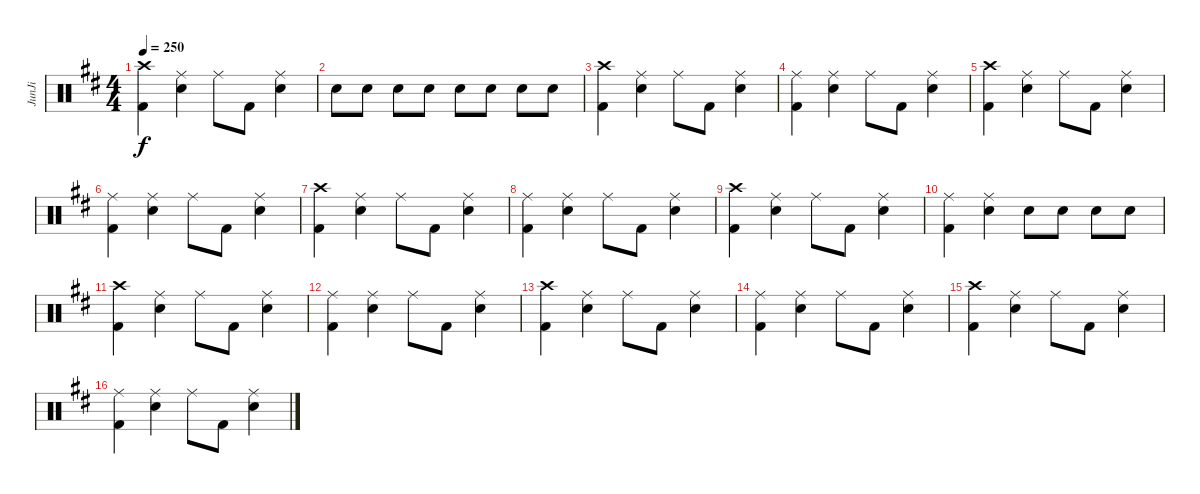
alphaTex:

\track ("JunJi" "JunJi") {instrument percussion}
\staff {score}
\articulation defaults
\ts (4 4)
\tempo 250
\clef neutral
\ks d
("Crash high (hit)" "Kick (hit) 2").4{dy f} ("Ride (middle)" "Snare (hit) 2").4 "Ride (middle)".8 "Kick (hit) 2".8 ("Ride (middle)" "Snare (hit) 2").4 |
"Snare (hit) 2".8 "Snare (hit) 2".8 "Snare (hit) 2".8 "Snare (hit) 2".8 "Snare (hit) 2".8 "Snare (hit) 2".8 "Snare (hit) 2".8 "Snare (hit) 2".8 |
("Crash high (hit)" "Kick (hit) 2").4 ("Ride (middle)" "Snare (hit) 2").4 "Ride (middle)".8 "Kick (hit) 2".8 ("Ride (middle)" "Snare (hit) 2").4 |
("Ride (middle)" "Kick (hit) 2").4 ("Ride (middle)" "Snare (hit) 2").4 "Ride (middle)".8 "Kick (hit) 2".8 ("Ride (middle)" "Snare (hit) 2").4 |
("Crash high (hit)" "Kick (hit) 2").4 ("Ride (middle)" "Snare (hit) 2").4 "Ride (middle)".8 "Kick (hit) 2".8 ("Ride (middle)" "Snare (hit) 2").4 |
("Ride (middle)" "Kick (hit) 2").4 ("Ride (middle)" "Snare (hit) 2").4 "Ride (middle)".8 "Kick (hit) 2".8 ("Ride (middle)" "Snare (hit) 2").4 |
("Crash high (hit)" "Kick (hit) 2").4 ("Ride (middle)" "Snare (hit) 2").4 "Ride (middle)".8 "Kick (hit) 2".8 ("Ride (middle)" "Snare (hit) 2").4 |
("Ride (middle)" "Kick (hit) 2").4 ("Ride (middle)" "Snare (hit) 2").4 "Ride (middle)".8 "Kick (hit) 2".8 ("Ride (middle)" "Snare (hit) 2").4 |
("Crash high (hit)" "Kick (hit) 2").4 ("Ride (middle)" "Snare (hit) 2").4 "Ride (middle)".8 "Kick (hit) 2".8 ("Ride (middle)" "Snare (hit) 2").4 |
("Ride (middle)" "Kick (hit) 2").4 ("Ride (middle)" "Snare (hit) 2").4 "Snare (hit) 2".8 "Snare (hit) 2".8 "Snare (hit) 2".8 "Snare (hit) 2".8 |
("Crash high (hit)" "Kick (hit) 2").4 ("Ride (middle)" "Snare (hit) 2").4 "Ride (middle)".8 "Kick (hit) 2".8 ("Ride (middle)" "Snare (hit) 2").4 |
("Ride (middle)" "Kick (hit) 2").4 ("Ride (middle)" "Snare (hit) 2").4 "Ride (middle)".8 "Kick (hit) 2".8 ("Ride (middle)" "Snare (hit) 2").4 |
("Crash high (hit)" "Kick (hit) 2").4 ("Ride (middle)" "Snare (hit) 2").4 "Ride (middle)".8 "Kick (hit) 2".8 ("Ride (middle)" "Snare (hit) 2").4 |
("Ride (middle)" "Kick (hit) 2").4 ("Ride (middle)" "Snare (hit) 2").4 "Ride (middle)".8 "Kick (hit) 2".8 ("Ride (middle)" "Snare (hit) 2").4 |
("Crash high (hit)" "Kick (hit) 2").4 ("Ride (middle)" "Snare (hit) 2").4 "Ride (middle)".8 "Kick (hit) 2".8 ("Ride (middle)" "Snare (hit) 2").4 |
("Ride (middle)" "Kick (hit) 2").4 ("Ride (middle)" "Snare (hit) 2").4 "Ride (middle)".8 "Kick (hit) 2".8 ("Ride (middle)" "Snare (hit) 2").4
